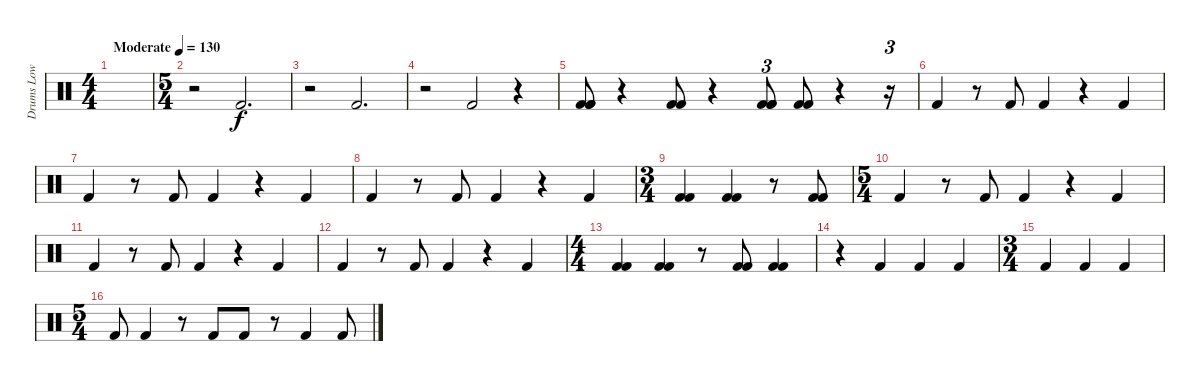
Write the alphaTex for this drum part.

\track ("Drums Low" "Drums Low") {instrument percussion}
\staff {score}
\articulation defaults
\ts (4 4)
\tempo (130 "Moderate")
\clef neutral
\ks c
|
\ts (5 4)
r.2 "Kick (hit) 2".2{d} |
r.2 "Kick (hit) 2".2{d} |
r.2 "Kick (hit) 2".2 r.4 |
("Kick (hit) 2" "Kick (hit) 2" "Kick (hit) 2").8{bd 240} r.4 ("Kick (hit) 2" "Kick (hit) 2").8{bd 240} r.4 ("Kick (hit) 2" "Kick (hit) 2" "Kick (hit) 2").8{tu (3 2) bd 240} ("Kick (hit) 2" "Kick (hit) 2").8{bd 240} r.4 r.16{tu (3 2)} |
"Kick (hit) 2".4 r.8 "Kick (hit) 2".8 "Kick (hit) 2".4 r.4 "Kick (hit) 2".4 |
"Kick (hit) 2".4 r.8 "Kick (hit) 2".8 "Kick (hit) 2".4 r.4 "Kick (hit) 2".4 |
"Kick (hit) 2".4 r.8 "Kick (hit) 2".8 "Kick (hit) 2".4 r.4 "Kick (hit) 2".4 |
\ts (3 4)
("Kick (hit) 2" "Kick (hit) 2").4{bd 240} ("Kick (hit) 2" "Kick (hit) 2").4{bd 240} r.8 ("Kick (hit) 2" "Kick (hit) 2").8{bd 240} |
\ts (5 4)
"Kick (hit) 2".4 r.8 "Kick (hit) 2".8 "Kick (hit) 2".4 r.4 "Kick (hit) 2".4 |
"Kick (hit) 2".4 r.8 "Kick (hit) 2".8 "Kick (hit) 2".4 r.4 "Kick (hit) 2".4 |
"Kick (hit) 2".4 r.8 "Kick (hit) 2".8 "Kick (hit) 2".4 r.4 "Kick (hit) 2".4 |
\ts (4 4)
("Kick (hit) 2" "Kick (hit) 2").4{bd 240} ("Kick (hit) 2" "Kick (hit) 2").4{bd 240} r.8 ("Kick (hit) 2" "Kick (hit) 2").8{bd 240} ("Kick (hit) 2" "Kick (hit) 2").4{bd 240} |
r.4 "Kick (hit) 2".4 "Kick (hit) 2".4 "Kick (hit) 2".4 |
\ts (3 4)
"Kick (hit) 2".4 "Kick (hit) 2".4 "Kick (hit) 2".4 |
\ts (5 4)
"Kick (hit) 2".8 "Kick (hit) 2".4 r.8 "Kick (hit) 2".8 "Kick (hit) 2".8 r.8 "Kick (hit) 2".4 "Kick (hit) 2".8
